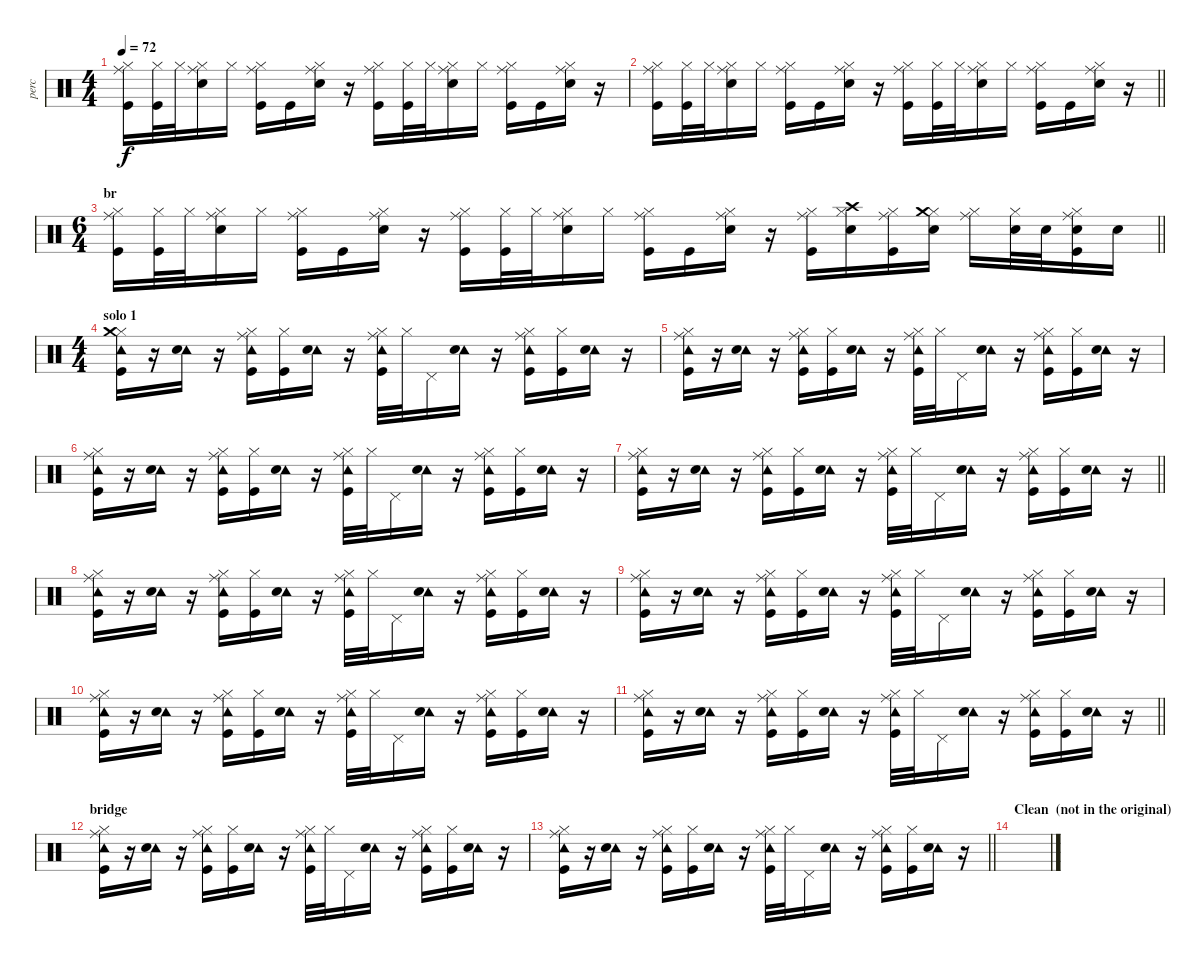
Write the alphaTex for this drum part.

\track ("perc" "perc") {instrument percussion}
\staff {score}
\articulation defaults
\ts (4 4)
\tempo 72
\clef neutral
\ks c
("Ride (middle)" "Hi-Hat (closed)" "Kick (hit)").16{dy f} ("Hi-Hat (closed)" "Kick (hit)").32 "Hi-Hat (closed)".32 ("Ride (middle)" "Hi-Hat (closed)" "Snare (hit) 2").16 "Hi-Hat (closed)".16 ("Ride (middle)" "Hi-Hat (closed)" "Kick (hit)").16 "Kick (hit)".16 ("Ride (middle)" "Hi-Hat (closed)" "Snare (hit) 2").16 r.16 ("Ride (middle)" "Hi-Hat (closed)" "Kick (hit)").16 ("Hi-Hat (closed)" "Kick (hit)").32 "Hi-Hat (closed)".32 ("Ride (middle)" "Hi-Hat (closed)" "Snare (hit) 2").16 "Hi-Hat (closed)".16 ("Ride (middle)" "Hi-Hat (closed)" "Kick (hit)").16 "Kick (hit)".16 ("Ride (middle)" "Hi-Hat (closed)" "Snare (hit) 2").16 r.16 |
\barLineRight lightlight
("Ride (middle)" "Hi-Hat (closed)" "Kick (hit)").16 ("Hi-Hat (closed)" "Kick (hit)").32 "Hi-Hat (closed)".32 ("Ride (middle)" "Hi-Hat (closed)" "Snare (hit) 2").16 "Hi-Hat (closed)".16 ("Ride (middle)" "Hi-Hat (closed)" "Kick (hit)").16 "Kick (hit)".16 ("Ride (middle)" "Hi-Hat (closed)" "Snare (hit) 2").16 r.16 ("Ride (middle)" "Hi-Hat (closed)" "Kick (hit)").16 ("Hi-Hat (closed)" "Kick (hit)").32 "Hi-Hat (closed)".32 ("Ride (middle)" "Hi-Hat (closed)" "Snare (hit) 2").16 "Hi-Hat (closed)".16 ("Ride (middle)" "Hi-Hat (closed)" "Kick (hit)").16 "Kick (hit)".16 ("Ride (middle)" "Hi-Hat (closed)" "Snare (hit) 2").16 r.16 |
\ts (6 4)
\section ("" "br")
\barLineRight lightlight
("Ride (middle)" "Hi-Hat (closed)" "Kick (hit)").16 ("Hi-Hat (closed)" "Kick (hit)").32 "Hi-Hat (closed)".32 ("Ride (middle)" "Hi-Hat (closed)" "Snare (hit) 2").16 "Hi-Hat (closed)".16 ("Ride (middle)" "Hi-Hat (closed)" "Kick (hit)").16 "Kick (hit)".16 ("Ride (middle)" "Hi-Hat (closed)" "Snare (hit) 2").16 r.16 ("Ride (middle)" "Hi-Hat (closed)" "Kick (hit)").16 ("Hi-Hat (closed)" "Kick (hit)").32 "Hi-Hat (closed)".32 ("Ride (middle)" "Hi-Hat (closed)" "Snare (hit) 2").16 "Hi-Hat (closed)".16 ("Ride (middle)" "Hi-Hat (closed)" "Kick (hit)").16 "Kick (hit)".16 ("Ride (middle)" "Hi-Hat (closed)" "Snare (hit) 2").16 r.16 ("Ride (middle)" "Hi-Hat (closed)" "Kick (hit)").16 ("Hi-Hat (closed)" "Crash high (hit)" "Snare (hit) 2").16 ("Ride (middle)" "Hi-Hat (closed)" "Kick (hit)").16 ("Hi-Hat (closed)" "Crash medium (hit)" "Snare (hit) 2").16 ("Ride (middle)" "Hi-Hat (closed)").16 ("Hi-Hat (closed)" "Snare (hit) 2").32 "Snare (hit) 2".32 ("Ride (middle)" "Hi-Hat (closed)" "Snare (hit) 2" "Kick (hit)").16 "Snare (hit) 2".16 |
\ts (4 4)
\section ("" "solo 1")
("Tambourine (hit)" "Hi-Hat (closed)" "Crash medium (hit)" "Kick (hit)").16 r.16 ("Tambourine (hit)" "Snare (hit) 2").16 r.16 ("Tambourine (hit)" "Ride (middle)" "Hi-Hat (closed)" "Kick (hit)").16 ("Hi-Hat (closed)" "Kick (hit)").16 ("Tambourine (hit)" "Snare (hit) 2").16 r.16 ("Tambourine (hit)" "Ride (middle)" "Hi-Hat (closed)" "Kick (hit)").32 "Hi-Hat (closed)".32 "Pedal Hi-Hat (hit)".16 ("Tambourine (hit)" "Snare (hit) 2").16 r.16 ("Tambourine (hit)" "Ride (middle)" "Hi-Hat (closed)" "Kick (hit)").16 ("Hi-Hat (closed)" "Kick (hit)").16 ("Tambourine (hit)" "Snare (hit) 2").16 r.16 |
("Tambourine (hit)" "Ride (middle)" "Hi-Hat (closed)" "Kick (hit)").16 r.16 ("Tambourine (hit)" "Snare (hit) 2").16 r.16 ("Tambourine (hit)" "Ride (middle)" "Hi-Hat (closed)" "Kick (hit)").16 ("Hi-Hat (closed)" "Kick (hit)").16 ("Tambourine (hit)" "Snare (hit) 2").16 r.16 ("Tambourine (hit)" "Ride (middle)" "Hi-Hat (closed)" "Kick (hit)").32 "Hi-Hat (closed)".32 "Pedal Hi-Hat (hit)".16 ("Tambourine (hit)" "Snare (hit) 2").16 r.16 ("Tambourine (hit)" "Ride (middle)" "Hi-Hat (closed)" "Kick (hit)").16 ("Hi-Hat (closed)" "Kick (hit)").16 ("Tambourine (hit)" "Snare (hit) 2").16 r.16 |
("Tambourine (hit)" "Ride (middle)" "Hi-Hat (closed)" "Kick (hit)").16 r.16 ("Tambourine (hit)" "Snare (hit) 2").16 r.16 ("Tambourine (hit)" "Ride (middle)" "Hi-Hat (closed)" "Kick (hit)").16 ("Hi-Hat (closed)" "Kick (hit)").16 ("Tambourine (hit)" "Snare (hit) 2").16 r.16 ("Tambourine (hit)" "Ride (middle)" "Hi-Hat (closed)" "Kick (hit)").32 "Hi-Hat (closed)".32 "Pedal Hi-Hat (hit)".16 ("Tambourine (hit)" "Snare (hit) 2").16 r.16 ("Tambourine (hit)" "Ride (middle)" "Hi-Hat (closed)" "Kick (hit)").16 ("Hi-Hat (closed)" "Kick (hit)").16 ("Tambourine (hit)" "Snare (hit) 2").16 r.16 |
\barLineRight lightlight
("Tambourine (hit)" "Ride (middle)" "Hi-Hat (closed)" "Kick (hit)").16 r.16 ("Tambourine (hit)" "Snare (hit) 2").16 r.16 ("Tambourine (hit)" "Ride (middle)" "Hi-Hat (closed)" "Kick (hit)").16 ("Hi-Hat (closed)" "Kick (hit)").16 ("Tambourine (hit)" "Snare (hit) 2").16 r.16 ("Tambourine (hit)" "Ride (middle)" "Hi-Hat (closed)" "Kick (hit)").32 "Hi-Hat (closed)".32 "Pedal Hi-Hat (hit)".16 ("Tambourine (hit)" "Snare (hit) 2").16 r.16 ("Tambourine (hit)" "Ride (middle)" "Hi-Hat (closed)" "Kick (hit)").16 ("Hi-Hat (closed)" "Kick (hit)").16 ("Tambourine (hit)" "Snare (hit) 2").16 r.16 |
\section ("" "")
("Tambourine (hit)" "Ride (middle)" "Hi-Hat (closed)" "Kick (hit)").16 r.16 ("Tambourine (hit)" "Snare (hit) 2").16 r.16 ("Tambourine (hit)" "Ride (middle)" "Hi-Hat (closed)" "Kick (hit)").16 ("Hi-Hat (closed)" "Kick (hit)").16 ("Tambourine (hit)" "Snare (hit) 2").16 r.16 ("Tambourine (hit)" "Ride (middle)" "Hi-Hat (closed)" "Kick (hit)").32 "Hi-Hat (closed)".32 "Pedal Hi-Hat (hit)".16 ("Tambourine (hit)" "Snare (hit) 2").16 r.16 ("Tambourine (hit)" "Ride (middle)" "Hi-Hat (closed)" "Kick (hit)").16 ("Hi-Hat (closed)" "Kick (hit)").16 ("Tambourine (hit)" "Snare (hit) 2").16 r.16 |
("Tambourine (hit)" "Ride (middle)" "Hi-Hat (closed)" "Kick (hit)").16 r.16 ("Tambourine (hit)" "Snare (hit) 2").16 r.16 ("Tambourine (hit)" "Ride (middle)" "Hi-Hat (closed)" "Kick (hit)").16 ("Hi-Hat (closed)" "Kick (hit)").16 ("Tambourine (hit)" "Snare (hit) 2").16 r.16 ("Tambourine (hit)" "Ride (middle)" "Hi-Hat (closed)" "Kick (hit)").32 "Hi-Hat (closed)".32 "Pedal Hi-Hat (hit)".16 ("Tambourine (hit)" "Snare (hit) 2").16 r.16 ("Tambourine (hit)" "Ride (middle)" "Hi-Hat (closed)" "Kick (hit)").16 ("Hi-Hat (closed)" "Kick (hit)").16 ("Tambourine (hit)" "Snare (hit) 2").16 r.16 |
("Tambourine (hit)" "Ride (middle)" "Hi-Hat (closed)" "Kick (hit)").16 r.16 ("Tambourine (hit)" "Snare (hit) 2").16 r.16 ("Tambourine (hit)" "Ride (middle)" "Hi-Hat (closed)" "Kick (hit)").16 ("Hi-Hat (closed)" "Kick (hit)").16 ("Tambourine (hit)" "Snare (hit) 2").16 r.16 ("Tambourine (hit)" "Ride (middle)" "Hi-Hat (closed)" "Kick (hit)").32 "Hi-Hat (closed)".32 "Pedal Hi-Hat (hit)".16 ("Tambourine (hit)" "Snare (hit) 2").16 r.16 ("Tambourine (hit)" "Ride (middle)" "Hi-Hat (closed)" "Kick (hit)").16 ("Hi-Hat (closed)" "Kick (hit)").16 ("Tambourine (hit)" "Snare (hit) 2").16 r.16 |
\barLineRight lightlight
("Tambourine (hit)" "Ride (middle)" "Hi-Hat (closed)" "Kick (hit)").16 r.16 ("Tambourine (hit)" "Snare (hit) 2").16 r.16 ("Tambourine (hit)" "Ride (middle)" "Hi-Hat (closed)" "Kick (hit)").16 ("Hi-Hat (closed)" "Kick (hit)").16 ("Tambourine (hit)" "Snare (hit) 2").16 r.16 ("Tambourine (hit)" "Ride (middle)" "Hi-Hat (closed)" "Kick (hit)").32 "Hi-Hat (closed)".32 "Pedal Hi-Hat (hit)".16 ("Tambourine (hit)" "Snare (hit) 2").16 r.16 ("Tambourine (hit)" "Ride (middle)" "Hi-Hat (closed)" "Kick (hit)").16 ("Hi-Hat (closed)" "Kick (hit)").16 ("Tambourine (hit)" "Snare (hit) 2").16 r.16 |
\section ("" "bridge")
("Tambourine (hit)" "Ride (middle)" "Hi-Hat (closed)" "Kick (hit)").16 r.16 ("Tambourine (hit)" "Snare (hit) 2").16 r.16 ("Tambourine (hit)" "Ride (middle)" "Hi-Hat (closed)" "Kick (hit)").16 ("Hi-Hat (closed)" "Kick (hit)").16 ("Tambourine (hit)" "Snare (hit) 2").16 r.16 ("Tambourine (hit)" "Ride (middle)" "Hi-Hat (closed)" "Kick (hit)").32 "Hi-Hat (closed)".32 "Pedal Hi-Hat (hit)".16 ("Tambourine (hit)" "Snare (hit) 2").16 r.16 ("Tambourine (hit)" "Ride (middle)" "Hi-Hat (closed)" "Kick (hit)").16 ("Hi-Hat (closed)" "Kick (hit)").16 ("Tambourine (hit)" "Snare (hit) 2").16 r.16 |
\barLineRight lightlight
("Tambourine (hit)" "Ride (middle)" "Hi-Hat (closed)" "Kick (hit)").16 r.16 ("Tambourine (hit)" "Snare (hit) 2").16 r.16 ("Tambourine (hit)" "Ride (middle)" "Hi-Hat (closed)" "Kick (hit)").16 ("Hi-Hat (closed)" "Kick (hit)").16 ("Tambourine (hit)" "Snare (hit) 2").16 r.16 ("Tambourine (hit)" "Ride (middle)" "Hi-Hat (closed)" "Kick (hit)").32 "Hi-Hat (closed)".32 "Pedal Hi-Hat (hit)".16 ("Tambourine (hit)" "Snare (hit) 2").16 r.16 ("Tambourine (hit)" "Ride (middle)" "Hi-Hat (closed)" "Kick (hit)").16 ("Hi-Hat (closed)" "Kick (hit)").16 ("Tambourine (hit)" "Snare (hit) 2").16 r.16 |
\section ("" "Clean  (not in the original)")
